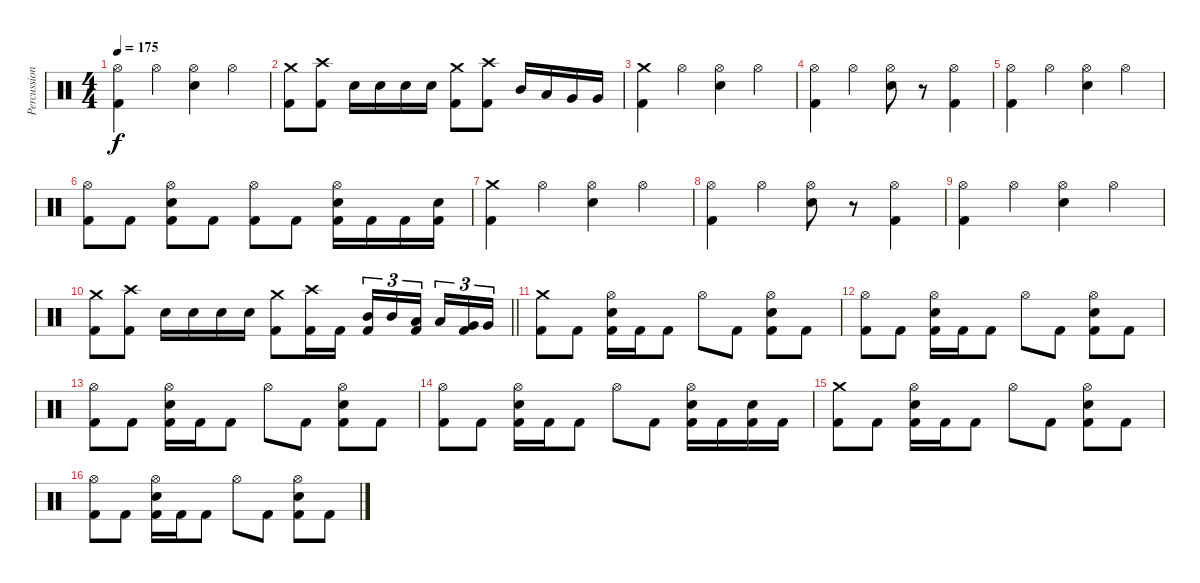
\track ("Percussion" "Percussion") {instrument percussion}
\staff {score}
\articulation defaults
\ts (4 4)
\tempo 175
\clef neutral
\ks c
("Hi-Hat (open)" "Kick (hit) 2").4{dy f} "Hi-Hat (open)".4 ("Hi-Hat (open)" "Snare (hit) 2").4 "Hi-Hat (open)".4 |
("Crash medium (hit)" "Kick (hit) 2").8 ("Crash high (hit)" "Kick (hit) 2").8 "Snare (hit) 2".16 "Snare (hit) 2".16 "Snare (hit) 2".16 "Snare (hit) 2".16 ("Crash medium (hit)" "Kick (hit) 2").8 ("Crash high (hit)" "Kick (hit) 2").8 "Mid Tom (hit)".16 "Low Tom (hit)".16 "Very Low Tom (hit)".16 "Very Low Tom (hit)".16 |
("Crash medium (hit)" "Kick (hit) 2").4 "Hi-Hat (open)".4 ("Hi-Hat (open)" "Snare (hit) 2").4 "Hi-Hat (open)".4 |
("Hi-Hat (open)" "Kick (hit) 2").4 "Hi-Hat (open)".4 ("Hi-Hat (open)" "Snare (hit) 2").8 r.8 ("Hi-Hat (open)" "Kick (hit) 2").4 |
("Hi-Hat (open)" "Kick (hit) 2").4 "Hi-Hat (open)".4 ("Hi-Hat (open)" "Snare (hit) 2").4 "Hi-Hat (open)".4 |
("Hi-Hat (open)" "Kick (hit) 2").8 "Kick (hit) 2".8 ("Kick (hit) 2" "Hi-Hat (open)" "Snare (hit) 2").8 "Kick (hit) 2".8 ("Hi-Hat (open)" "Kick (hit) 2").8 "Kick (hit) 2".8 ("Kick (hit) 2" "Hi-Hat (open)" "Snare (hit) 2").16 "Kick (hit) 2".16 "Kick (hit) 2".16 ("Kick (hit) 2" "Snare (hit) 2").16 |
("Crash medium (hit)" "Kick (hit) 2").4 "Hi-Hat (open)".4 ("Hi-Hat (open)" "Snare (hit) 2").4 "Hi-Hat (open)".4 |
("Hi-Hat (open)" "Kick (hit) 2").4 "Hi-Hat (open)".4 ("Hi-Hat (open)" "Snare (hit) 2").8 r.8 ("Hi-Hat (open)" "Kick (hit) 2").4 |
("Hi-Hat (open)" "Kick (hit) 2").4 "Hi-Hat (open)".4 ("Hi-Hat (open)" "Snare (hit) 2").4 "Hi-Hat (open)".4 |
\barLineRight lightlight
("Crash medium (hit)" "Kick (hit) 2").8 ("Crash high (hit)" "Kick (hit) 2").8 "Snare (hit) 2".16 "Snare (hit) 2".16 "Snare (hit) 2".16 "Snare (hit) 2".16 ("Crash medium (hit)" "Kick (hit) 2").8 ("Crash high (hit)" "Kick (hit) 2").16 "Kick (hit) 2".16 ("Kick (hit) 2" "Mid Tom (hit)").16{tu (3 2)} "Mid Tom (hit)".16{tu (3 2)} ("Kick (hit) 2" "Low Tom (hit)").16{tu (3 2)} "Low Tom (hit)".16{tu (3 2)} ("Kick (hit) 2" "Very Low Tom (hit)").16{tu (3 2)} "Very Low Tom (hit)".16{tu (3 2)} |
("Crash medium (hit)" "Kick (hit) 2").8 "Kick (hit) 2".8 ("Kick (hit) 2" "Hi-Hat (open)" "Snare (hit) 2").16 "Kick (hit) 2".16 "Kick (hit) 2".8 "Hi-Hat (open)".8 "Kick (hit) 2".8 ("Kick (hit) 2" "Hi-Hat (open)" "Snare (hit) 2").8 "Kick (hit) 2".8 |
("Hi-Hat (open)" "Kick (hit) 2").8 "Kick (hit) 2".8 ("Kick (hit) 2" "Hi-Hat (open)" "Snare (hit) 2").16 "Kick (hit) 2".16 "Kick (hit) 2".8 "Hi-Hat (open)".8 "Kick (hit) 2".8 ("Kick (hit) 2" "Hi-Hat (open)" "Snare (hit) 2").8 "Kick (hit) 2".8 |
("Hi-Hat (open)" "Kick (hit) 2").8 "Kick (hit) 2".8 ("Kick (hit) 2" "Hi-Hat (open)" "Snare (hit) 2").16 "Kick (hit) 2".16 "Kick (hit) 2".8 "Hi-Hat (open)".8 "Kick (hit) 2".8 ("Kick (hit) 2" "Hi-Hat (open)" "Snare (hit) 2").8 "Kick (hit) 2".8 |
("Hi-Hat (open)" "Kick (hit) 2").8 "Kick (hit) 2".8 ("Kick (hit) 2" "Hi-Hat (open)" "Snare (hit) 2").16 "Kick (hit) 2".16 "Kick (hit) 2".8 "Hi-Hat (open)".8 "Kick (hit) 2".8 ("Kick (hit) 2" "Hi-Hat (open)" "Snare (hit) 2").16 "Kick (hit) 2".16 ("Kick (hit) 2" "Snare (hit) 2").16 "Kick (hit) 2".16 |
("Crash medium (hit)" "Kick (hit) 2").8 "Kick (hit) 2".8 ("Kick (hit) 2" "Hi-Hat (open)" "Snare (hit) 2").16 "Kick (hit) 2".16 "Kick (hit) 2".8 "Hi-Hat (open)".8 "Kick (hit) 2".8 ("Kick (hit) 2" "Hi-Hat (open)" "Snare (hit) 2").8 "Kick (hit) 2".8 |
("Hi-Hat (open)" "Kick (hit) 2").8 "Kick (hit) 2".8 ("Kick (hit) 2" "Hi-Hat (open)" "Snare (hit) 2").16 "Kick (hit) 2".16 "Kick (hit) 2".8 "Hi-Hat (open)".8 "Kick (hit) 2".8 ("Kick (hit) 2" "Hi-Hat (open)" "Snare (hit) 2").8 "Kick (hit) 2".8
